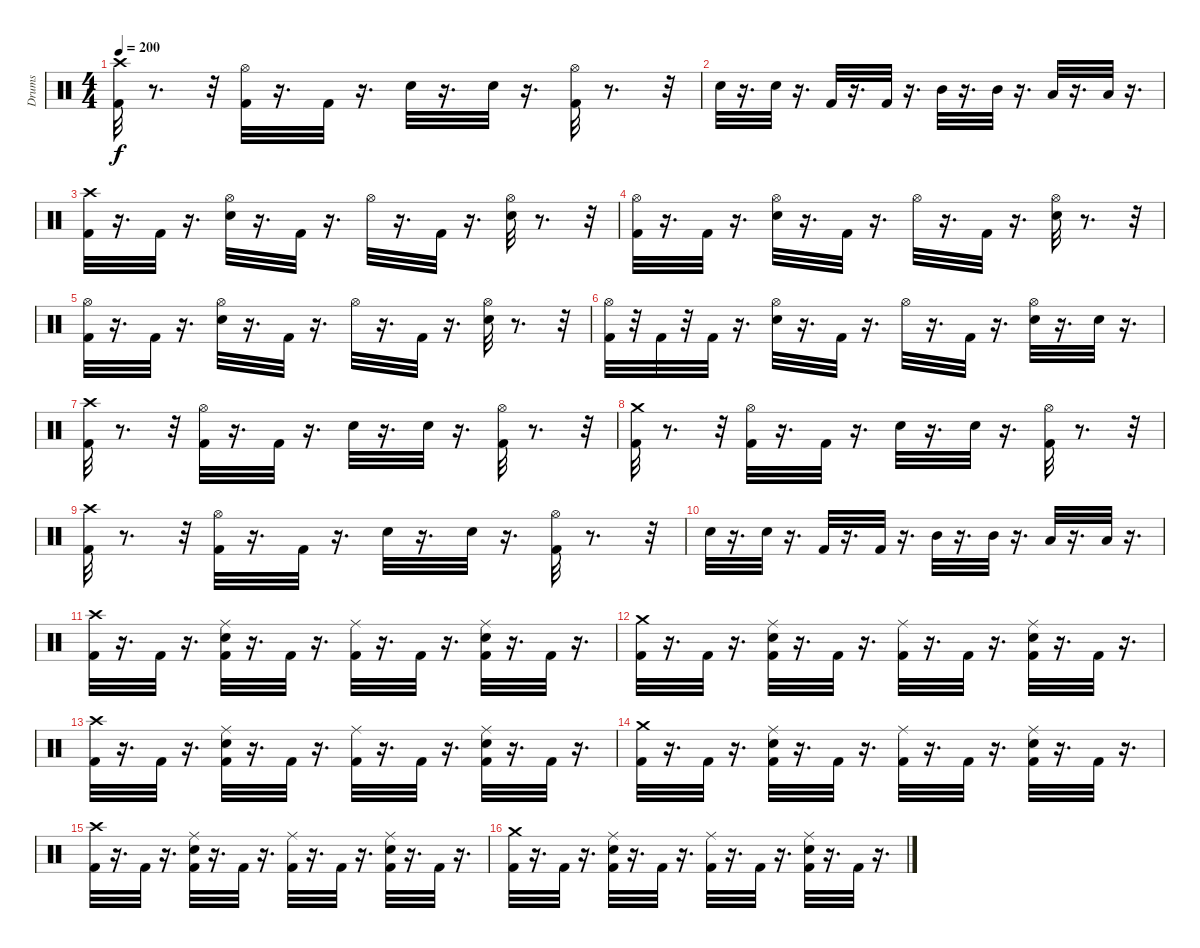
\track ("Drums" "Drums") {instrument percussion}
\staff {score}
\articulation defaults
\ts (4 4)
\tempo 200
\clef neutral
\ks c
("Crash high (hit)" "Kick (hit) 2").32{dy f} r.8{d} r.32 ("Hi-Hat (open)" "Kick (hit) 2").32 r.16{d} "Kick (hit) 2".32 r.16{d} "Electric Snare (hit)".32 r.16{d} "Electric Snare (hit)".32 r.16{d} ("Hi-Hat (open)" "Kick (hit) 2").32 r.8{d} r.32 |
"Electric Snare (hit)".32 r.16{d} "Electric Snare (hit)".32 r.16{d} "Kick (hit) 2".32 r.16{d} "Kick (hit) 2".32 r.16{d} "Mid Tom (hit)".32 r.16{d} "Mid Tom (hit)".32 r.16{d} "Low Tom (hit)".32 r.16{d} "Low Tom (hit)".32 r.16{d} |
("Crash high (hit)" "Kick (hit) 2").32 r.16{d} "Kick (hit) 2".32 r.16{d} ("Hi-Hat (open)" "Electric Snare (hit)").32 r.16{d} "Kick (hit) 2".32 r.16{d} "Hi-Hat (open)".32 r.16{d} "Kick (hit) 2".32 r.16{d} ("Hi-Hat (open)" "Electric Snare (hit)").32 r.8{d} r.32 |
("Hi-Hat (open)" "Kick (hit) 2").32 r.16{d} "Kick (hit) 2".32 r.16{d} ("Hi-Hat (open)" "Electric Snare (hit)").32 r.16{d} "Kick (hit) 2".32 r.16{d} "Hi-Hat (open)".32 r.16{d} "Kick (hit) 2".32 r.16{d} ("Hi-Hat (open)" "Electric Snare (hit)").32 r.8{d} r.32 |
("Hi-Hat (open)" "Kick (hit) 2").32 r.16{d} "Kick (hit) 2".32 r.16{d} ("Hi-Hat (open)" "Electric Snare (hit)").32 r.16{d} "Kick (hit) 2".32 r.16{d} "Hi-Hat (open)".32 r.16{d} "Kick (hit) 2".32 r.16{d} ("Hi-Hat (open)" "Electric Snare (hit)").32 r.8{d} r.32 |
("Hi-Hat (open)" "Kick (hit) 2").32 r.32 "Kick (hit) 2".32 r.32 "Kick (hit) 2".32 r.16{d} ("Hi-Hat (open)" "Electric Snare (hit)").32 r.16{d} "Kick (hit) 2".32 r.16{d} "Hi-Hat (open)".32 r.16{d} "Kick (hit) 2".32 r.16{d} ("Hi-Hat (open)" "Electric Snare (hit)").32 r.16{d} "Electric Snare (hit)".32 r.16{d} |
("Crash high (hit)" "Kick (hit) 2").32 r.8{d} r.32 ("Hi-Hat (open)" "Kick (hit) 2").32 r.16{d} "Kick (hit) 2".32 r.16{d} "Electric Snare (hit)".32 r.16{d} "Electric Snare (hit)".32 r.16{d} ("Kick (hit) 2" "Hi-Hat (open)").32 r.8{d} r.32 |
("Crash medium (hit)" "Kick (hit) 2").32 r.8{d} r.32 ("Hi-Hat (open)" "Kick (hit) 2").32 r.16{d} "Kick (hit) 2".32 r.16{d} "Electric Snare (hit)".32 r.16{d} "Electric Snare (hit)".32 r.16{d} ("Hi-Hat (open)" "Kick (hit) 2").32 r.8{d} r.32 |
("Crash high (hit)" "Kick (hit) 2").32 r.8{d} r.32 ("Hi-Hat (open)" "Kick (hit) 2").32 r.16{d} "Kick (hit) 2".32 r.16{d} "Electric Snare (hit)".32 r.16{d} "Electric Snare (hit)".32 r.16{d} ("Hi-Hat (open)" "Kick (hit) 2").32 r.8{d} r.32 |
"Electric Snare (hit)".32 r.16{d} "Electric Snare (hit)".32 r.16{d} "Kick (hit) 2".32 r.16{d} "Kick (hit) 2".32 r.16{d} "Mid Tom (hit)".32 r.16{d} "Mid Tom (hit)".32 r.16{d} "Low Tom (hit)".32 r.16{d} "Low Tom (hit)".32 r.16{d} |
("Crash high (hit)" "Kick (hit) 2").32 r.16{d} "Kick (hit) 2".32 r.16{d} ("Electric Snare (hit)" "Ride (middle)" "Kick (hit) 2").32 r.16{d} "Kick (hit) 2".32 r.16{d} ("Ride (middle)" "Kick (hit) 2").32 r.16{d} "Kick (hit) 2".32 r.16{d} ("Electric Snare (hit)" "Ride (middle)" "Kick (hit) 2").32 r.16{d} "Kick (hit) 2".32 r.16{d} |
("Kick (hit) 2" "Crash medium (hit)").32 r.16{d} "Kick (hit) 2".32 r.16{d} ("Kick (hit) 2" "Electric Snare (hit)" "Ride (middle)").32 r.16{d} "Kick (hit) 2".32 r.16{d} ("Kick (hit) 2" "Ride (middle)").32 r.16{d} "Kick (hit) 2".32 r.16{d} ("Kick (hit) 2" "Electric Snare (hit)" "Ride (middle)").32 r.16{d} "Kick (hit) 2".32 r.16{d} |
("Crash high (hit)" "Kick (hit) 2").32 r.16{d} "Kick (hit) 2".32 r.16{d} ("Electric Snare (hit)" "Ride (middle)" "Kick (hit) 2").32 r.16{d} "Kick (hit) 2".32 r.16{d} ("Ride (middle)" "Kick (hit) 2").32 r.16{d} "Kick (hit) 2".32 r.16{d} ("Electric Snare (hit)" "Ride (middle)" "Kick (hit) 2").32 r.16{d} "Kick (hit) 2".32 r.16{d} |
("Kick (hit) 2" "Crash medium (hit)").32 r.16{d} "Kick (hit) 2".32 r.16{d} ("Kick (hit) 2" "Electric Snare (hit)" "Ride (middle)").32 r.16{d} "Kick (hit) 2".32 r.16{d} ("Kick (hit) 2" "Ride (middle)").32 r.16{d} "Kick (hit) 2".32 r.16{d} ("Kick (hit) 2" "Electric Snare (hit)" "Ride (middle)").32 r.16{d} "Kick (hit) 2".32 r.16{d} |
("Crash high (hit)" "Kick (hit) 2").32 r.16{d} "Kick (hit) 2".32 r.16{d} ("Electric Snare (hit)" "Ride (middle)" "Kick (hit) 2").32 r.16{d} "Kick (hit) 2".32 r.16{d} ("Ride (middle)" "Kick (hit) 2").32 r.16{d} "Kick (hit) 2".32 r.16{d} ("Electric Snare (hit)" "Ride (middle)" "Kick (hit) 2").32 r.16{d} "Kick (hit) 2".32 r.16{d} |
("Kick (hit) 2" "Crash medium (hit)").32 r.16{d} "Kick (hit) 2".32 r.16{d} ("Kick (hit) 2" "Electric Snare (hit)" "Ride (middle)").32 r.16{d} "Kick (hit) 2".32 r.16{d} ("Kick (hit) 2" "Ride (middle)").32 r.16{d} "Kick (hit) 2".32 r.16{d} ("Kick (hit) 2" "Electric Snare (hit)" "Ride (middle)").32 r.16{d} "Kick (hit) 2".32 r.16{d}
